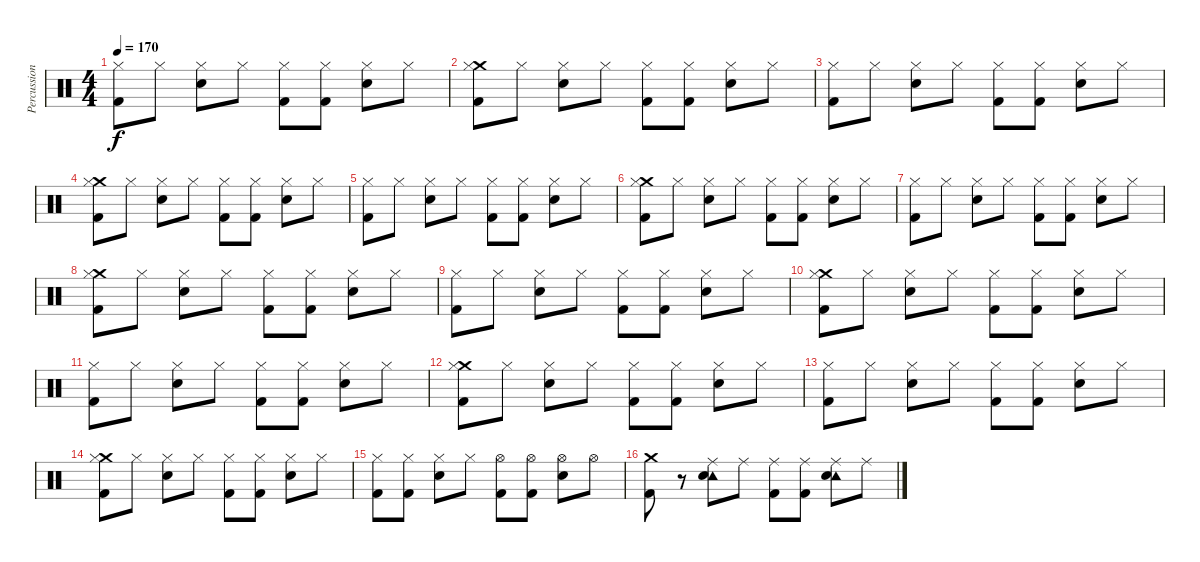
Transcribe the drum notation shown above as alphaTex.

\track ("Percussion" "Percussion") {instrument percussion}
\staff {score}
\articulation defaults
\ts (4 4)
\tempo 170
\clef neutral
\ks c
("Hi-Hat (closed)" "Kick (hit) 2").8{dy f} "Hi-Hat (closed)".8 ("Hi-Hat (closed)" "Snare (hit) 2").8 "Hi-Hat (closed)".8 ("Hi-Hat (closed)" "Kick (hit) 2").8 ("Hi-Hat (closed)" "Kick (hit) 2").8 ("Hi-Hat (closed)" "Snare (hit) 2").8 "Hi-Hat (closed)".8 |
("Crash medium (hit)" "Hi-Hat (closed)" "Kick (hit) 2").8 "Hi-Hat (closed)".8 ("Hi-Hat (closed)" "Snare (hit) 2").8 "Hi-Hat (closed)".8 ("Hi-Hat (closed)" "Kick (hit) 2").8 ("Hi-Hat (closed)" "Kick (hit) 2").8 ("Hi-Hat (closed)" "Snare (hit) 2").8 "Hi-Hat (closed)".8 |
("Hi-Hat (closed)" "Kick (hit) 2").8 "Hi-Hat (closed)".8 ("Hi-Hat (closed)" "Snare (hit) 2").8 "Hi-Hat (closed)".8 ("Hi-Hat (closed)" "Kick (hit) 2").8 ("Hi-Hat (closed)" "Kick (hit) 2").8 ("Hi-Hat (closed)" "Snare (hit) 2").8 "Hi-Hat (closed)".8 |
("Crash medium (hit)" "Hi-Hat (closed)" "Kick (hit) 2").8 "Hi-Hat (closed)".8 ("Hi-Hat (closed)" "Snare (hit) 2").8 "Hi-Hat (closed)".8 ("Hi-Hat (closed)" "Kick (hit) 2").8 ("Hi-Hat (closed)" "Kick (hit) 2").8 ("Hi-Hat (closed)" "Snare (hit) 2").8 "Hi-Hat (closed)".8 |
("Hi-Hat (closed)" "Kick (hit) 2").8 "Hi-Hat (closed)".8 ("Hi-Hat (closed)" "Snare (hit) 2").8 "Hi-Hat (closed)".8 ("Hi-Hat (closed)" "Kick (hit) 2").8 ("Hi-Hat (closed)" "Kick (hit) 2").8 ("Hi-Hat (closed)" "Snare (hit) 2").8 "Hi-Hat (closed)".8 |
("Crash medium (hit)" "Hi-Hat (closed)" "Kick (hit) 2").8 "Hi-Hat (closed)".8 ("Hi-Hat (closed)" "Snare (hit) 2").8 "Hi-Hat (closed)".8 ("Hi-Hat (closed)" "Kick (hit) 2").8 ("Hi-Hat (closed)" "Kick (hit) 2").8 ("Hi-Hat (closed)" "Snare (hit) 2").8 "Hi-Hat (closed)".8 |
("Hi-Hat (closed)" "Kick (hit) 2").8 "Hi-Hat (closed)".8 ("Hi-Hat (closed)" "Snare (hit) 2").8 "Hi-Hat (closed)".8 ("Hi-Hat (closed)" "Kick (hit) 2").8 ("Hi-Hat (closed)" "Kick (hit) 2").8 ("Hi-Hat (closed)" "Snare (hit) 2").8 "Hi-Hat (closed)".8 |
("Crash medium (hit)" "Hi-Hat (closed)" "Kick (hit) 2").8 "Hi-Hat (closed)".8 ("Hi-Hat (closed)" "Snare (hit) 2").8 "Hi-Hat (closed)".8 ("Hi-Hat (closed)" "Kick (hit) 2").8 ("Hi-Hat (closed)" "Kick (hit) 2").8 ("Hi-Hat (closed)" "Snare (hit) 2").8 "Hi-Hat (closed)".8 |
("Hi-Hat (closed)" "Kick (hit) 2").8 "Hi-Hat (closed)".8 ("Hi-Hat (closed)" "Snare (hit) 2").8 "Hi-Hat (closed)".8 ("Hi-Hat (closed)" "Kick (hit) 2").8 ("Hi-Hat (closed)" "Kick (hit) 2").8 ("Hi-Hat (closed)" "Snare (hit) 2").8 "Hi-Hat (closed)".8 |
("Crash medium (hit)" "Hi-Hat (closed)" "Kick (hit) 2").8 "Hi-Hat (closed)".8 ("Hi-Hat (closed)" "Snare (hit) 2").8 "Hi-Hat (closed)".8 ("Hi-Hat (closed)" "Kick (hit) 2").8 ("Hi-Hat (closed)" "Kick (hit) 2").8 ("Hi-Hat (closed)" "Snare (hit) 2").8 "Hi-Hat (closed)".8 |
("Hi-Hat (closed)" "Kick (hit) 2").8 "Hi-Hat (closed)".8 ("Hi-Hat (closed)" "Snare (hit) 2").8 "Hi-Hat (closed)".8 ("Hi-Hat (closed)" "Kick (hit) 2").8 ("Hi-Hat (closed)" "Kick (hit) 2").8 ("Hi-Hat (closed)" "Snare (hit) 2").8 "Hi-Hat (closed)".8 |
("Crash medium (hit)" "Hi-Hat (closed)" "Kick (hit) 2").8 "Hi-Hat (closed)".8 ("Hi-Hat (closed)" "Snare (hit) 2").8 "Hi-Hat (closed)".8 ("Hi-Hat (closed)" "Kick (hit) 2").8 ("Hi-Hat (closed)" "Kick (hit) 2").8 ("Hi-Hat (closed)" "Snare (hit) 2").8 "Hi-Hat (closed)".8 |
("Hi-Hat (closed)" "Kick (hit) 2").8 "Hi-Hat (closed)".8 ("Hi-Hat (closed)" "Snare (hit) 2").8 "Hi-Hat (closed)".8 ("Hi-Hat (closed)" "Kick (hit) 2").8 ("Hi-Hat (closed)" "Kick (hit) 2").8 ("Hi-Hat (closed)" "Snare (hit) 2").8 "Hi-Hat (closed)".8 |
("Crash medium (hit)" "Hi-Hat (closed)" "Kick (hit) 2").8 "Hi-Hat (closed)".8 ("Hi-Hat (closed)" "Snare (hit) 2").8 "Hi-Hat (closed)".8 ("Hi-Hat (closed)" "Kick (hit) 2").8 ("Hi-Hat (closed)" "Kick (hit) 2").8 ("Hi-Hat (closed)" "Snare (hit) 2").8 "Hi-Hat (closed)".8 |
("Hi-Hat (closed)" "Kick (hit) 2").8 ("Hi-Hat (closed)" "Kick (hit) 2").8 ("Hi-Hat (closed)" "Snare (hit) 2").8 "Hi-Hat (closed)".8 ("Hi-Hat (open)" "Kick (hit) 2").8 ("Hi-Hat (open)" "Kick (hit) 2").8 ("Hi-Hat (open)" "Snare (hit) 2").8 "Hi-Hat (open)".8 |
("Crash medium (hit)" "Kick (hit) 2").8 r.8 ("Ride (middle)" "Tambourine (hit)" "Snare (hit) 2").8 "Ride (middle)".8 ("Ride (middle)" "Kick (hit) 2").8 ("Ride (middle)" "Kick (hit) 2").8 ("Ride (middle)" "Tambourine (hit)" "Snare (hit) 2").8 "Ride (middle)".8
